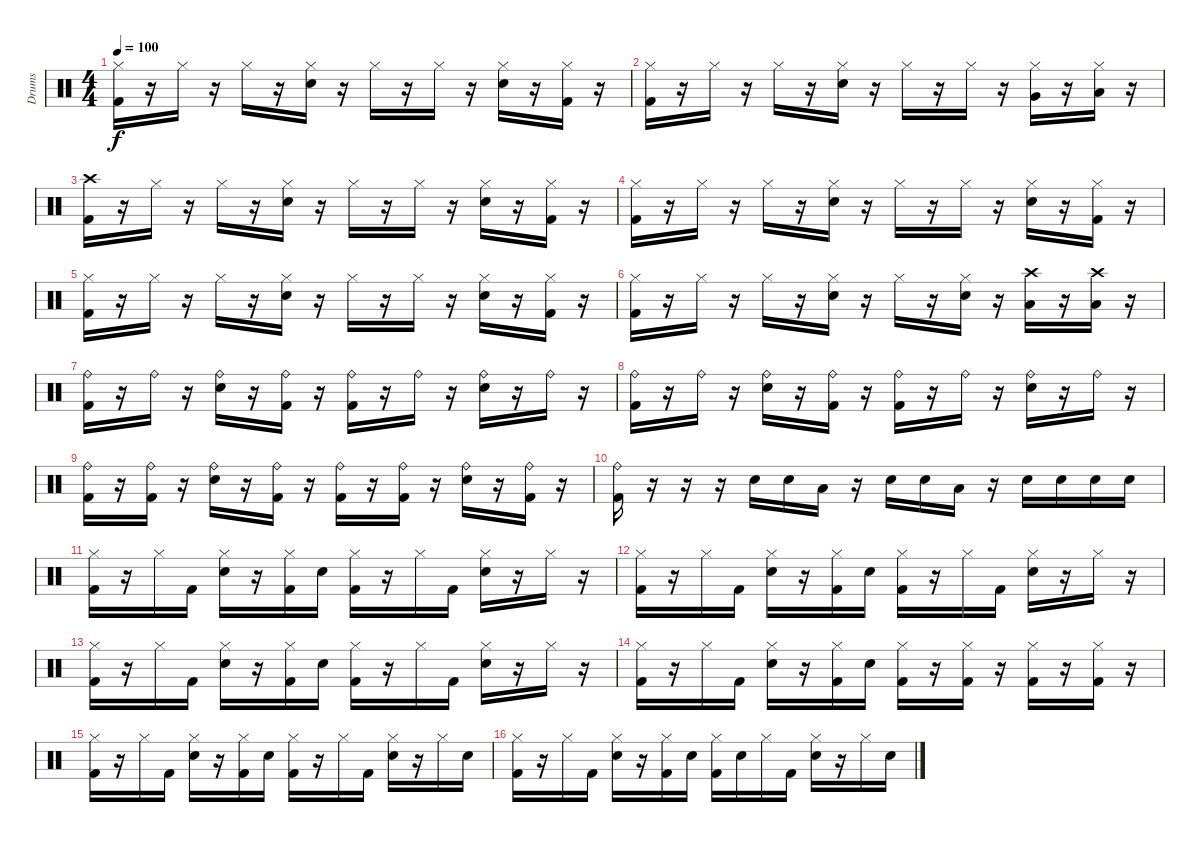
\track ("Drums" "Drums") {instrument percussion}
\staff {score}
\articulation defaults
\ts (4 4)
\tempo 100
\clef neutral
\ks c
("Hi-Hat (closed)" "Kick (hit) 2").16{dy f} r.16 "Hi-Hat (closed)".16 r.16 "Hi-Hat (closed)".16 r.16 ("Hi-Hat (closed)" "Snare (hit) 2").16 r.16 "Hi-Hat (closed)".16 r.16 "Hi-Hat (closed)".16 r.16 ("Hi-Hat (closed)" "Snare (hit) 2").16 r.16 ("Hi-Hat (closed)" "Kick (hit) 2").16 r.16 |
("Hi-Hat (closed)" "Kick (hit) 2").16 r.16 "Hi-Hat (closed)".16 r.16 "Hi-Hat (closed)".16 r.16 ("Hi-Hat (closed)" "Snare (hit) 2").16 r.16 "Hi-Hat (closed)".16 r.16 "Hi-Hat (closed)".16 r.16 ("Hi-Hat (closed)" "Very Low Tom (hit)").16 r.16 ("Hi-Hat (closed)" "Low Floor Tom (hit)").16 r.16 |
("Crash high (hit)" "Kick (hit) 2").16 r.16 "Hi-Hat (closed)".16 r.16 "Hi-Hat (closed)".16 r.16 ("Hi-Hat (closed)" "Snare (hit) 2").16 r.16 "Hi-Hat (closed)".16 r.16 "Hi-Hat (closed)".16 r.16 ("Hi-Hat (closed)" "Snare (hit) 2").16 r.16 ("Hi-Hat (closed)" "Kick (hit) 2").16 r.16 |
("Hi-Hat (closed)" "Kick (hit) 2").16 r.16 "Hi-Hat (closed)".16 r.16 "Hi-Hat (closed)".16 r.16 ("Hi-Hat (closed)" "Snare (hit) 2").16 r.16 "Hi-Hat (closed)".16 r.16 "Hi-Hat (closed)".16 r.16 ("Hi-Hat (closed)" "Snare (hit) 2").16 r.16 ("Hi-Hat (closed)" "Kick (hit) 2").16 r.16 |
("Hi-Hat (closed)" "Kick (hit) 2").16 r.16 "Hi-Hat (closed)".16 r.16 "Hi-Hat (closed)".16 r.16 ("Hi-Hat (closed)" "Snare (hit) 2").16 r.16 "Hi-Hat (closed)".16 r.16 "Hi-Hat (closed)".16 r.16 ("Hi-Hat (closed)" "Snare (hit) 2").16 r.16 ("Hi-Hat (closed)" "Kick (hit) 2").16 r.16 |
("Hi-Hat (closed)" "Kick (hit) 2").16 r.16 "Hi-Hat (closed)".16 r.16 "Hi-Hat (closed)".16 r.16 ("Hi-Hat (closed)" "Snare (hit) 2").16 r.16 "Hi-Hat (closed)".16 r.16 ("Hi-Hat (closed)" "Snare (hit) 2").16 r.16 ("Crash high (hit)" "Low Floor Tom (hit)").16 r.16 ("Crash high (hit)" "Low Floor Tom (hit)").16 r.16 |
("Ride (bell)" "Kick (hit) 2").16 r.16 "Ride (bell)".16 r.16 ("Ride (bell)" "Snare (hit) 2").16 r.16 ("Ride (bell)" "Kick (hit) 2").16 r.16 ("Ride (bell)" "Kick (hit) 2").16 r.16 "Ride (bell)".16 r.16 ("Ride (bell)" "Snare (hit) 2").16 r.16 "Ride (bell)".16 r.16 |
("Ride (bell)" "Kick (hit) 2").16 r.16 "Ride (bell)".16 r.16 ("Ride (bell)" "Snare (hit) 2").16 r.16 ("Ride (bell)" "Kick (hit) 2").16 r.16 ("Ride (bell)" "Kick (hit) 2").16 r.16 "Ride (bell)".16 r.16 ("Ride (bell)" "Snare (hit) 2").16 r.16 "Ride (bell)".16 r.16 |
("Ride (bell)" "Kick (hit) 2").16 r.16 ("Ride (bell)" "Kick (hit) 2").16 r.16 ("Ride (bell)" "Snare (hit) 2").16 r.16 ("Ride (bell)" "Kick (hit) 2").16 r.16 ("Ride (bell)" "Kick (hit) 2").16 r.16 ("Ride (bell)" "Kick (hit) 2").16 r.16 ("Ride (bell)" "Snare (hit) 2").16 r.16 ("Ride (bell)" "Kick (hit) 2").16 r.16 |
("Ride (bell)" "Kick (hit) 2").16 r.16 r.16 r.16 "Snare (hit) 2".16 "Snare (hit) 2".16 "Low Floor Tom (hit)".16 r.16 "Snare (hit) 2".16 "Snare (hit) 2".16 "Low Floor Tom (hit)".16 r.16 "Snare (hit) 2".16 "Snare (hit) 2".16 "Snare (hit) 2".16 "Snare (hit) 2".16 |
("Hi-Hat (closed)" "Kick (hit) 2").16 r.16 "Hi-Hat (closed)".16 "Kick (hit) 2".16 ("Hi-Hat (closed)" "Snare (hit) 2").16 r.16 ("Hi-Hat (closed)" "Kick (hit) 2").16 "Snare (hit) 2".16 ("Hi-Hat (closed)" "Kick (hit) 2").16 r.16 "Hi-Hat (closed)".16 "Kick (hit) 2".16 ("Hi-Hat (closed)" "Snare (hit) 2").16 r.16 "Hi-Hat (closed)".16 r.16 |
("Hi-Hat (closed)" "Kick (hit) 2").16 r.16 "Hi-Hat (closed)".16 "Kick (hit) 2".16 ("Hi-Hat (closed)" "Snare (hit) 2").16 r.16 ("Hi-Hat (closed)" "Kick (hit) 2").16 "Snare (hit) 2".16 ("Hi-Hat (closed)" "Kick (hit) 2").16 r.16 "Hi-Hat (closed)".16 "Kick (hit) 2".16 ("Hi-Hat (closed)" "Snare (hit) 2").16 r.16 "Hi-Hat (closed)".16 r.16 |
("Hi-Hat (closed)" "Kick (hit) 2").16 r.16 "Hi-Hat (closed)".16 "Kick (hit) 2".16 ("Hi-Hat (closed)" "Snare (hit) 2").16 r.16 ("Hi-Hat (closed)" "Kick (hit) 2").16 "Snare (hit) 2".16 ("Hi-Hat (closed)" "Kick (hit) 2").16 r.16 "Hi-Hat (closed)".16 "Kick (hit) 2".16 ("Hi-Hat (closed)" "Snare (hit) 2").16 r.16 "Hi-Hat (closed)".16 r.16 |
("Hi-Hat (closed)" "Kick (hit) 2").16 r.16 "Hi-Hat (closed)".16 "Kick (hit) 2".16 ("Hi-Hat (closed)" "Snare (hit) 2").16 r.16 ("Hi-Hat (closed)" "Kick (hit) 2").16 "Snare (hit) 2".16 ("Hi-Hat (closed)" "Kick (hit) 2").16 r.16 ("Hi-Hat (closed)" "Kick (hit) 2").16 r.16 ("Hi-Hat (closed)" "Kick (hit) 2").16 r.16 ("Hi-Hat (closed)" "Kick (hit) 2").16 r.16 |
("Hi-Hat (closed)" "Kick (hit) 2").16 r.16 "Hi-Hat (closed)".16 "Kick (hit) 2".16 ("Hi-Hat (closed)" "Snare (hit) 2").16 r.16 ("Hi-Hat (closed)" "Kick (hit) 2").16 "Snare (hit) 2".16 ("Hi-Hat (closed)" "Kick (hit) 2").16 r.16 "Hi-Hat (closed)".16 "Kick (hit) 2".16 ("Hi-Hat (closed)" "Snare (hit) 2").16 r.16 "Hi-Hat (closed)".16 "Snare (hit) 2".16 |
("Hi-Hat (closed)" "Kick (hit) 2").16 r.16 "Hi-Hat (closed)".16 "Kick (hit) 2".16 ("Hi-Hat (closed)" "Snare (hit) 2").16 r.16 ("Hi-Hat (closed)" "Kick (hit) 2").16 "Snare (hit) 2".16 ("Hi-Hat (closed)" "Kick (hit) 2").16 "Snare (hit) 2".16 "Hi-Hat (closed)".16 "Kick (hit) 2".16 ("Hi-Hat (closed)" "Snare (hit) 2").16 r.16 "Hi-Hat (closed)".16 "Snare (hit) 2".16
